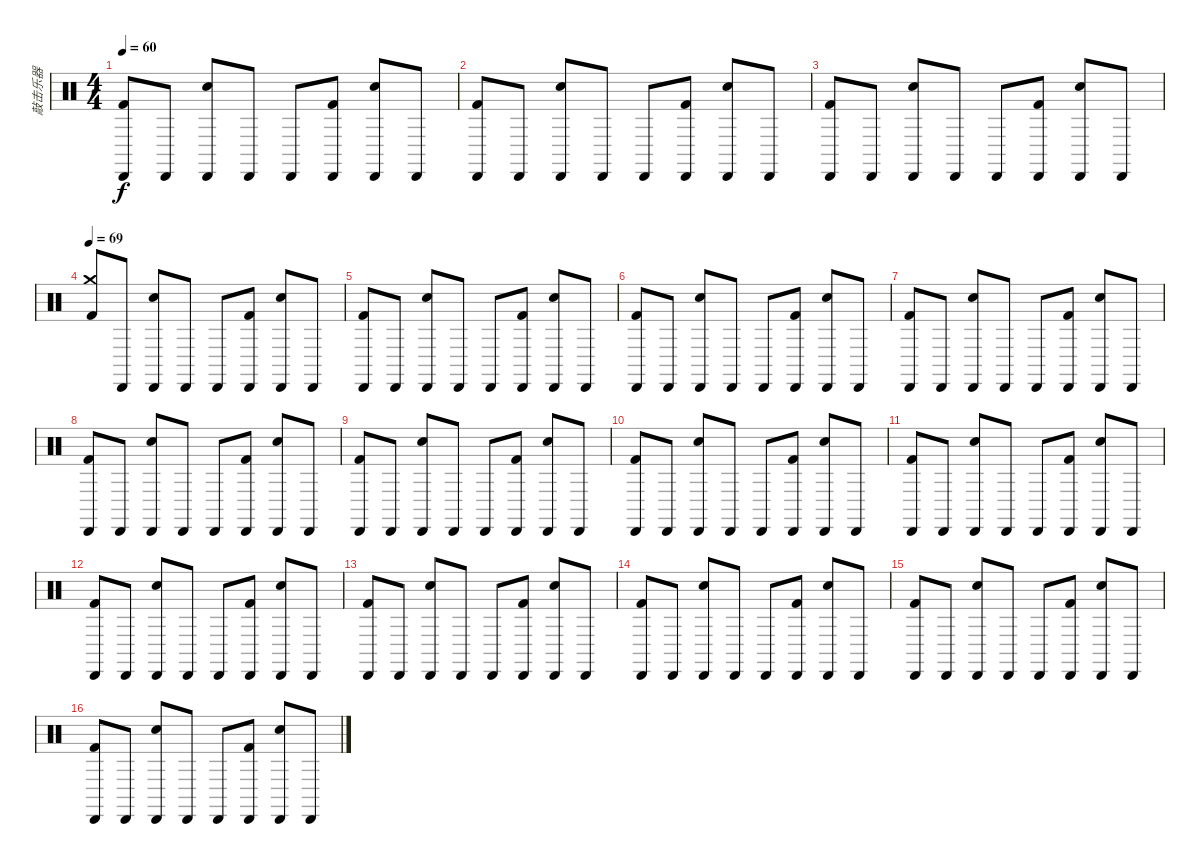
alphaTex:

\track ("敲击乐器" "敲击乐器") {instrument percussion}
\staff {score}
\articulation defaults
\ts (4 4)
\tempo 60
\clef neutral
\ks c
("Cabasa (hit)" "Kick (hit) 2").8{dy f} "Cabasa (hit)".8 ("Cabasa (hit)" "Electric Snare (hit)").8 "Cabasa (hit)".8 "Cabasa (hit)".8 ("Cabasa (hit)" "Kick (hit) 2").8 ("Cabasa (hit)" "Electric Snare (hit)").8 "Cabasa (hit)".8 |
("Cabasa (hit)" "Kick (hit) 2").8 "Cabasa (hit)".8 ("Cabasa (hit)" "Electric Snare (hit)").8 "Cabasa (hit)".8 "Cabasa (hit)".8 ("Cabasa (hit)" "Kick (hit) 2").8 ("Cabasa (hit)" "Electric Snare (hit)").8 "Cabasa (hit)".8 |
("Cabasa (hit)" "Kick (hit) 2").8 "Cabasa (hit)".8 ("Cabasa (hit)" "Electric Snare (hit)").8 "Cabasa (hit)".8 "Cabasa (hit)".8 ("Cabasa (hit)" "Kick (hit) 2").8 ("Cabasa (hit)" "Electric Snare (hit)").8 "Cabasa (hit)".8 |
\tempo 69
("Crash medium (hit)" "Kick (hit) 2").8 "Cabasa (hit)".8 ("Cabasa (hit)" "Electric Snare (hit)").8 "Cabasa (hit)".8 "Cabasa (hit)".8 ("Cabasa (hit)" "Kick (hit) 2").8 ("Cabasa (hit)" "Electric Snare (hit)").8 "Cabasa (hit)".8 |
("Cabasa (hit)" "Kick (hit) 2").8 "Cabasa (hit)".8 ("Cabasa (hit)" "Electric Snare (hit)").8 "Cabasa (hit)".8 "Cabasa (hit)".8 ("Cabasa (hit)" "Kick (hit) 2").8 ("Cabasa (hit)" "Electric Snare (hit)").8 "Cabasa (hit)".8 |
("Cabasa (hit)" "Kick (hit) 2").8 "Cabasa (hit)".8 ("Cabasa (hit)" "Electric Snare (hit)").8 "Cabasa (hit)".8 "Cabasa (hit)".8 ("Cabasa (hit)" "Kick (hit) 2").8 ("Cabasa (hit)" "Electric Snare (hit)").8 "Cabasa (hit)".8 |
("Cabasa (hit)" "Kick (hit) 2").8 "Cabasa (hit)".8 ("Cabasa (hit)" "Electric Snare (hit)").8 "Cabasa (hit)".8 "Cabasa (hit)".8 ("Cabasa (hit)" "Kick (hit) 2").8 ("Cabasa (hit)" "Electric Snare (hit)").8 "Cabasa (hit)".8 |
("Cabasa (hit)" "Kick (hit) 2").8 "Cabasa (hit)".8 ("Cabasa (hit)" "Electric Snare (hit)").8 "Cabasa (hit)".8 "Cabasa (hit)".8 ("Cabasa (hit)" "Kick (hit) 2").8 ("Cabasa (hit)" "Electric Snare (hit)").8 "Cabasa (hit)".8 |
("Cabasa (hit)" "Kick (hit) 2").8 "Cabasa (hit)".8 ("Cabasa (hit)" "Electric Snare (hit)").8 "Cabasa (hit)".8 "Cabasa (hit)".8 ("Cabasa (hit)" "Kick (hit) 2").8 ("Cabasa (hit)" "Electric Snare (hit)").8 "Cabasa (hit)".8 |
("Cabasa (hit)" "Kick (hit) 2").8 "Cabasa (hit)".8 ("Cabasa (hit)" "Electric Snare (hit)").8 "Cabasa (hit)".8 "Cabasa (hit)".8 ("Cabasa (hit)" "Kick (hit) 2").8 ("Cabasa (hit)" "Electric Snare (hit)").8 "Cabasa (hit)".8 |
("Cabasa (hit)" "Kick (hit) 2").8 "Cabasa (hit)".8 ("Cabasa (hit)" "Electric Snare (hit)").8 "Cabasa (hit)".8 "Cabasa (hit)".8 ("Cabasa (hit)" "Kick (hit) 2").8 ("Cabasa (hit)" "Electric Snare (hit)").8 "Cabasa (hit)".8 |
("Cabasa (hit)" "Kick (hit) 2").8 "Cabasa (hit)".8 ("Cabasa (hit)" "Electric Snare (hit)").8 "Cabasa (hit)".8 "Cabasa (hit)".8 ("Cabasa (hit)" "Kick (hit) 2").8 ("Cabasa (hit)" "Electric Snare (hit)").8 "Cabasa (hit)".8 |
("Cabasa (hit)" "Kick (hit) 2").8 "Cabasa (hit)".8 ("Cabasa (hit)" "Electric Snare (hit)").8 "Cabasa (hit)".8 "Cabasa (hit)".8 ("Cabasa (hit)" "Kick (hit) 2").8 ("Cabasa (hit)" "Electric Snare (hit)").8 "Cabasa (hit)".8 |
("Cabasa (hit)" "Kick (hit) 2").8 "Cabasa (hit)".8 ("Cabasa (hit)" "Electric Snare (hit)").8 "Cabasa (hit)".8 "Cabasa (hit)".8 ("Cabasa (hit)" "Kick (hit) 2").8 ("Cabasa (hit)" "Electric Snare (hit)").8 "Cabasa (hit)".8 |
("Cabasa (hit)" "Kick (hit) 2").8 "Cabasa (hit)".8 ("Cabasa (hit)" "Electric Snare (hit)").8 "Cabasa (hit)".8 "Cabasa (hit)".8 ("Cabasa (hit)" "Kick (hit) 2").8 ("Cabasa (hit)" "Electric Snare (hit)").8 "Cabasa (hit)".8 |
("Cabasa (hit)" "Kick (hit) 2").8 "Cabasa (hit)".8 ("Cabasa (hit)" "Electric Snare (hit)").8 "Cabasa (hit)".8 "Cabasa (hit)".8 ("Cabasa (hit)" "Kick (hit) 2").8 ("Cabasa (hit)" "Electric Snare (hit)").8 "Cabasa (hit)".8
